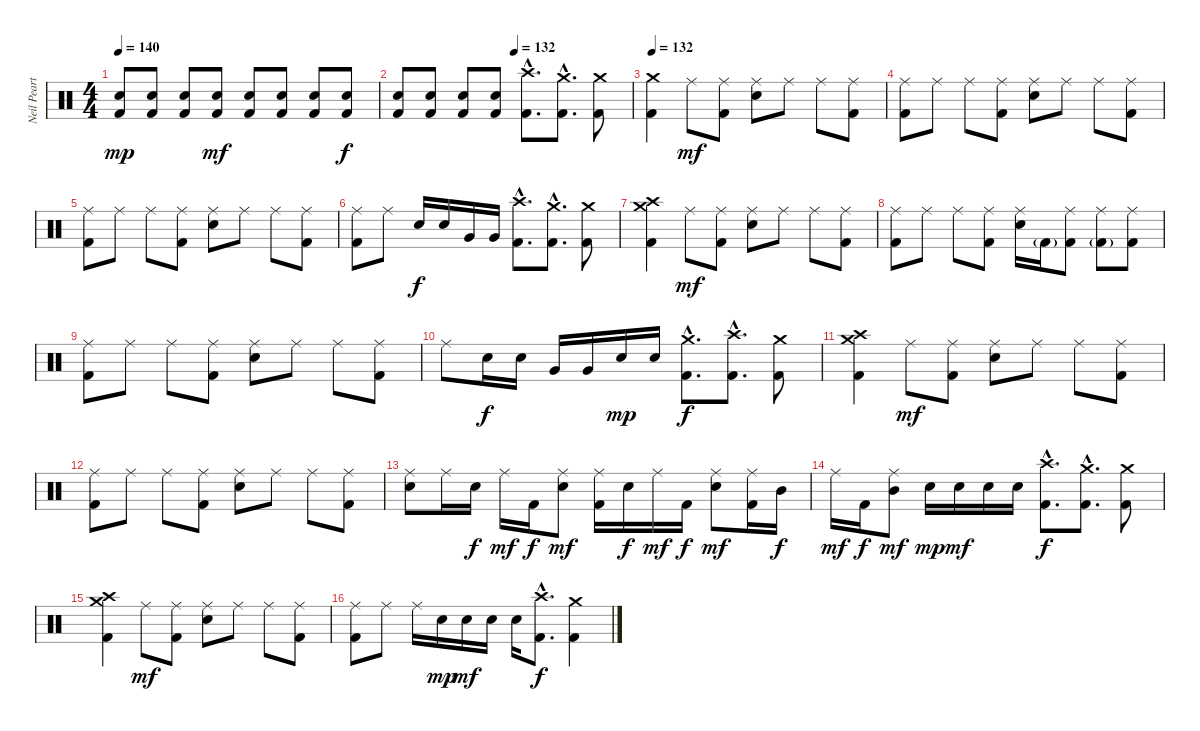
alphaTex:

\track ("Neil Peart, Percusión" "Neil Peart") {instrument percussion}
\staff {score}
\articulation defaults
\ts (4 4)
\tempo 140
\clef neutral
\ks c
("Electric Snare (hit)" "Kick (hit) 2").8{dy mp} ("Electric Snare (hit)" "Kick (hit) 2").8 ("Electric Snare (hit)" "Kick (hit) 2").8 ("Electric Snare (hit)" "Kick (hit) 2").8{dy mf} ("Electric Snare (hit)" "Kick (hit) 2").8 ("Electric Snare (hit)" "Kick (hit) 2").8 ("Electric Snare (hit)" "Kick (hit) 2").8 ("Electric Snare (hit)" "Kick (hit) 2").8{dy f} |
\tempo (132 0.5)
("Electric Snare (hit)" "Kick (hit) 2").8 ("Electric Snare (hit)" "Kick (hit) 2").8 ("Electric Snare (hit)" "Kick (hit) 2").8 ("Electric Snare (hit)" "Kick (hit) 2").8 ("Crash high (hit)"{hac} "Kick (hit) 2"{hac}).8{d} ("Crash medium (hit)"{hac} "Kick (hit) 2"{hac}).8{d} ("Crash medium (hit)" "Kick (hit) 2").8 |
\tempo 132
("Crash medium (hit)" "Kick (hit) 2").4 "Ride (middle)".8{dy mf} ("Ride (middle)" "Kick (hit) 2").8 ("Ride (middle)" "Electric Snare (hit)").8 "Ride (middle)".8 "Ride (middle)".8 ("Ride (middle)" "Kick (hit) 2").8 |
("Ride (middle)" "Kick (hit) 2").8 "Ride (middle)".8 "Ride (middle)".8 ("Ride (middle)" "Kick (hit) 2").8 ("Ride (middle)" "Electric Snare (hit)").8 "Ride (middle)".8 "Ride (middle)".8 ("Ride (middle)" "Kick (hit) 2").8 |
("Ride (middle)" "Kick (hit) 2").8 "Ride (middle)".8 "Ride (middle)".8 ("Ride (middle)" "Kick (hit) 2").8 ("Ride (middle)" "Electric Snare (hit)").8 "Ride (middle)".8 "Ride (middle)".8 ("Ride (middle)" "Kick (hit) 2").8 |
("Ride (middle)" "Kick (hit) 2").8 "Ride (middle)".8 "Electric Snare (hit)".16{dy f} "Electric Snare (hit)".16 "Very Low Tom (hit)".16 "Very Low Tom (hit)".16 ("Crash high (hit)"{hac} "Kick (hit) 2"{hac}).8{d} ("Crash medium (hit)"{hac} "Kick (hit) 2"{hac}).8{d} ("Crash medium (hit)" "Kick (hit) 2").8 |
("Crash medium (hit)" "Crash high (hit)" "Kick (hit) 2").4 "Ride (middle)".8{dy mf} ("Ride (middle)" "Kick (hit) 2").8 ("Ride (middle)" "Electric Snare (hit)").8 "Ride (middle)".8 "Ride (middle)".8 ("Ride (middle)" "Kick (hit) 2").8 |
("Ride (middle)" "Kick (hit) 2").8 "Ride (middle)".8 "Ride (middle)".8 ("Ride (middle)" "Kick (hit) 2").8 ("Ride (middle)" "Electric Snare (hit)").16 "Kick (hit) 2"{g}.16 ("Ride (middle)" "Kick (hit) 2").8 ("Ride (middle)" "Kick (hit) 2"{g}).8 ("Ride (middle)" "Kick (hit) 2").8 |
("Ride (middle)" "Kick (hit) 2").8 "Ride (middle)".8 "Ride (middle)".8 ("Ride (middle)" "Kick (hit) 2").8 ("Ride (middle)" "Electric Snare (hit)").8 "Ride (middle)".8 "Ride (middle)".8 ("Ride (middle)" "Kick (hit) 2").8 |
"Ride (middle)".8 "Electric Snare (hit)".16{dy f} "Electric Snare (hit)".16 "Very Low Tom (hit)".16 "Very Low Tom (hit)".16 "Electric Snare (hit)".16{dy mp} "Electric Snare (hit)".16 ("Crash medium (hit)"{hac} "Kick (hit) 2"{hac}).8{d dy f} ("Crash high (hit)"{hac} "Kick (hit) 2"{hac}).8{d} ("Crash medium (hit)" "Kick (hit) 2").8 |
("Crash medium (hit)" "Crash high (hit)" "Kick (hit) 2").4 "Ride (middle)".8{dy mf} ("Ride (middle)" "Kick (hit) 2").8 ("Ride (middle)" "Electric Snare (hit)").8 "Ride (middle)".8 "Ride (middle)".8 ("Ride (middle)" "Kick (hit) 2").8 |
("Ride (middle)" "Kick (hit) 2").8 "Ride (middle)".8 "Ride (middle)".8 ("Ride (middle)" "Kick (hit) 2").8 ("Ride (middle)" "Electric Snare (hit)").8 "Ride (middle)".8 "Ride (middle)".8 ("Ride (middle)" "Kick (hit) 2").8 |
("Ride (middle)" "Electric Snare (hit)").8 "Ride (middle)".16 "Electric Snare (hit)".16{dy f} "Ride (middle)".16{dy mf} "Kick (hit) 2".16{dy f} ("Ride (middle)" "Electric Snare (hit)").8{dy mf} ("Ride (middle)" "Kick (hit) 2").16 "Electric Snare (hit)".16{dy f} "Ride (middle)".16{dy mf} "Kick (hit) 2".16{dy f} ("Ride (middle)" "Electric Snare (hit)").8{dy mf} ("Ride (middle)" "Kick (hit) 2").16 "Mid Tom (hit)".16{dy f} |
"Ride (middle)".16{dy mf} "Kick (hit) 2".16{dy f} ("Ride (middle)" "Mid Tom (hit)").8{dy mf} "Electric Snare (hit)".16{dy mp} "Electric Snare (hit)".16{dy mf} "Electric Snare (hit)".16 "Electric Snare (hit)".16 ("Crash high (hit)"{hac} "Kick (hit) 2"{hac}).8{d dy f} ("Crash medium (hit)"{hac} "Kick (hit) 2"{hac}).8{d} ("Crash medium (hit)" "Kick (hit) 2").8 |
("Crash medium (hit)" "Crash high (hit)" "Kick (hit) 2").4 "Ride (middle)".8{dy mf} ("Ride (middle)" "Kick (hit) 2").8 ("Ride (middle)" "Electric Snare (hit)").8 "Ride (middle)".8 "Ride (middle)".8 ("Ride (middle)" "Kick (hit) 2").8 |
("Ride (middle)" "Kick (hit) 2").8 "Ride (middle)".8 "Ride (middle)".16 "Electric Snare (hit)".16{dy mp} "Electric Snare (hit)".16{dy mf} "Electric Snare (hit)".16 "Electric Snare (hit)".16 ("Crash high (hit)"{hac} "Kick (hit) 2"{hac}).8{d dy f} ("Crash medium (hit)" "Kick (hit) 2").4
